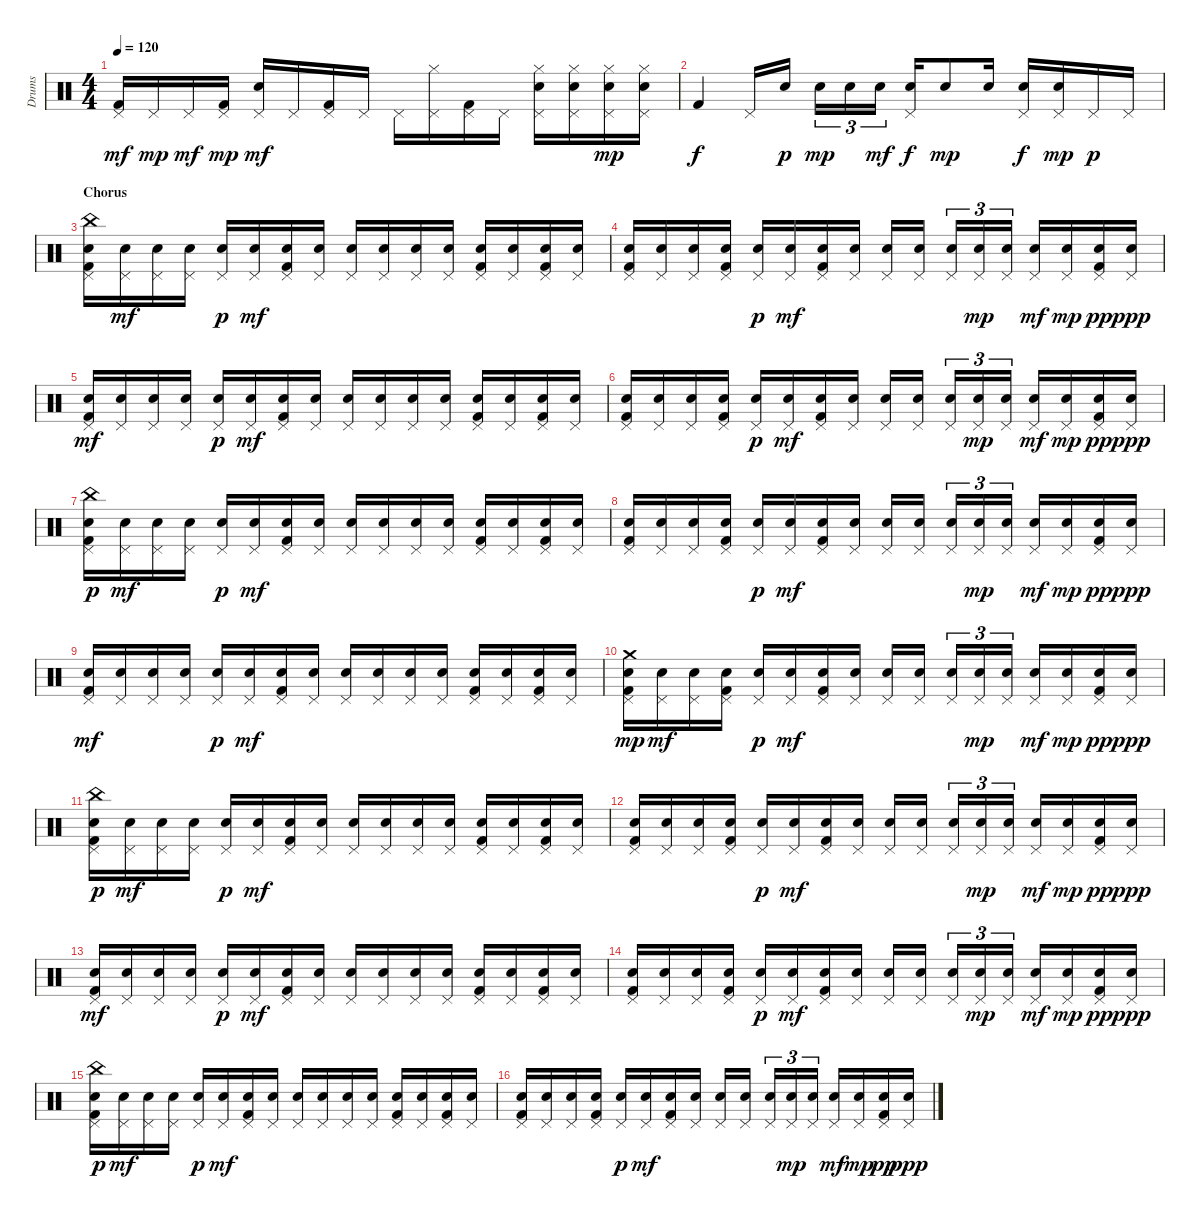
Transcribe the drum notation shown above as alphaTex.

\track ("Drums" "Drums") {instrument percussion}
\staff {score}
\articulation defaults
\ts (4 4)
\tempo 120
\clef neutral
\ks c
("Pedal Hi-Hat (hit)" "Kick (hit) 2").16{dy mf} "Pedal Hi-Hat (hit)".16{dy mp} "Pedal Hi-Hat (hit)".16{dy mf} ("Pedal Hi-Hat (hit)" "Kick (hit) 2").16{dy mp} ("Pedal Hi-Hat (hit)" "Electric Snare (hit)").16{dy mf} "Pedal Hi-Hat (hit)".16 ("Pedal Hi-Hat (hit)" "Kick (hit) 2").16 "Pedal Hi-Hat (hit)".16 "Pedal Hi-Hat (hit)".16 ("Pedal Hi-Hat (hit)" "Hi-Hat (closed)").16 ("Pedal Hi-Hat (hit)" "Kick (hit) 2").16 "Pedal Hi-Hat (hit)".16 ("Pedal Hi-Hat (hit)" "Electric Snare (hit)" "Hi-Hat (closed)").16 ("Pedal Hi-Hat (hit)" "Electric Snare (hit)" "Hi-Hat (closed)").16 ("Pedal Hi-Hat (hit)" "Electric Snare (hit)" "Hi-Hat (closed)").16{dy mp} ("Pedal Hi-Hat (hit)" "Electric Snare (hit)" "Hi-Hat (closed)").16 |
"Kick (hit) 2".4{dy f} "Pedal Hi-Hat (hit)".16 "Electric Snare (hit)".16{dy p} "Electric Snare (hit)".16{tu (3 2) dy mp} "Electric Snare (hit)".16{tu (3 2)} "Electric Snare (hit)".16{tu (3 2) dy mf} ("Electric Snare (hit)" "Pedal Hi-Hat (hit)").16{dy f} "Electric Snare (hit)".8{dy mp} "Electric Snare (hit)".16 ("Electric Snare (hit)" "Pedal Hi-Hat (hit)").16{dy f} ("Electric Snare (hit)" "Pedal Hi-Hat (hit)").16{dy mp} "Pedal Hi-Hat (hit)".16{dy p} "Pedal Hi-Hat (hit)".16 |
\section ("" "Chorus ")
("Electric Snare (hit)" "Pedal Hi-Hat (hit)" "Kick (hit) 2" "China (hit)").16 ("Electric Snare (hit)" "Pedal Hi-Hat (hit)").16{dy mf} ("Electric Snare (hit)" "Pedal Hi-Hat (hit)").16 ("Electric Snare (hit)" "Pedal Hi-Hat (hit)").16 ("Pedal Hi-Hat (hit)" "Electric Snare (hit)").16{dy p} ("Electric Snare (hit)" "Pedal Hi-Hat (hit)").16{dy mf} ("Electric Snare (hit)" "Pedal Hi-Hat (hit)" "Kick (hit) 2").16 ("Electric Snare (hit)" "Pedal Hi-Hat (hit)").16 ("Electric Snare (hit)" "Pedal Hi-Hat (hit)").16 ("Electric Snare (hit)" "Pedal Hi-Hat (hit)").16 ("Electric Snare (hit)" "Pedal Hi-Hat (hit)").16 ("Electric Snare (hit)" "Pedal Hi-Hat (hit)").16 ("Electric Snare (hit)" "Pedal Hi-Hat (hit)" "Kick (hit) 2").16 ("Electric Snare (hit)" "Pedal Hi-Hat (hit)").16 ("Electric Snare (hit)" "Pedal Hi-Hat (hit)" "Kick (hit) 2").16 ("Electric Snare (hit)" "Pedal Hi-Hat (hit)").16 |
("Electric Snare (hit)" "Pedal Hi-Hat (hit)" "Kick (hit) 2").16 ("Electric Snare (hit)" "Pedal Hi-Hat (hit)").16 ("Electric Snare (hit)" "Pedal Hi-Hat (hit)").16 ("Electric Snare (hit)" "Pedal Hi-Hat (hit)" "Kick (hit) 2").16 ("Pedal Hi-Hat (hit)" "Electric Snare (hit)").16{dy p} ("Electric Snare (hit)" "Pedal Hi-Hat (hit)").16{dy mf} ("Electric Snare (hit)" "Pedal Hi-Hat (hit)" "Kick (hit) 2").16 ("Electric Snare (hit)" "Pedal Hi-Hat (hit)").16 ("Electric Snare (hit)" "Pedal Hi-Hat (hit)").16 ("Electric Snare (hit)" "Pedal Hi-Hat (hit)").16 ("Electric Snare (hit)" "Pedal Hi-Hat (hit)").16{tu (3 2)} ("Electric Snare (hit)" "Pedal Hi-Hat (hit)").16{tu (3 2) dy mp} ("Electric Snare (hit)" "Pedal Hi-Hat (hit)").16{tu (3 2)} ("Electric Snare (hit)" "Pedal Hi-Hat (hit)").16{dy mf} ("Electric Snare (hit)" "Pedal Hi-Hat (hit)").16{dy mp} ("Electric Snare (hit)" "Pedal Hi-Hat (hit)" "Kick (hit) 2").16{dy pp} ("Electric Snare (hit)" "Pedal Hi-Hat (hit)").16{dy ppp} |
("Electric Snare (hit)" "Pedal Hi-Hat (hit)" "Kick (hit) 2").16{dy mf} ("Electric Snare (hit)" "Pedal Hi-Hat (hit)").16 ("Electric Snare (hit)" "Pedal Hi-Hat (hit)").16 ("Electric Snare (hit)" "Pedal Hi-Hat (hit)").16 ("Pedal Hi-Hat (hit)" "Electric Snare (hit)").16{dy p} ("Electric Snare (hit)" "Pedal Hi-Hat (hit)").16{dy mf} ("Electric Snare (hit)" "Pedal Hi-Hat (hit)" "Kick (hit) 2").16 ("Electric Snare (hit)" "Pedal Hi-Hat (hit)").16 ("Electric Snare (hit)" "Pedal Hi-Hat (hit)").16 ("Electric Snare (hit)" "Pedal Hi-Hat (hit)").16 ("Electric Snare (hit)" "Pedal Hi-Hat (hit)").16 ("Electric Snare (hit)" "Pedal Hi-Hat (hit)").16 ("Electric Snare (hit)" "Pedal Hi-Hat (hit)" "Kick (hit) 2").16 ("Electric Snare (hit)" "Pedal Hi-Hat (hit)").16 ("Electric Snare (hit)" "Pedal Hi-Hat (hit)" "Kick (hit) 2").16 ("Electric Snare (hit)" "Pedal Hi-Hat (hit)").16 |
("Electric Snare (hit)" "Pedal Hi-Hat (hit)" "Kick (hit) 2").16 ("Electric Snare (hit)" "Pedal Hi-Hat (hit)").16 ("Electric Snare (hit)" "Pedal Hi-Hat (hit)").16 ("Electric Snare (hit)" "Pedal Hi-Hat (hit)" "Kick (hit) 2").16 ("Pedal Hi-Hat (hit)" "Electric Snare (hit)").16{dy p} ("Electric Snare (hit)" "Pedal Hi-Hat (hit)").16{dy mf} ("Electric Snare (hit)" "Pedal Hi-Hat (hit)" "Kick (hit) 2").16 ("Electric Snare (hit)" "Pedal Hi-Hat (hit)").16 ("Electric Snare (hit)" "Pedal Hi-Hat (hit)").16 ("Electric Snare (hit)" "Pedal Hi-Hat (hit)").16 ("Electric Snare (hit)" "Pedal Hi-Hat (hit)").16{tu (3 2)} ("Electric Snare (hit)" "Pedal Hi-Hat (hit)").16{tu (3 2) dy mp} ("Electric Snare (hit)" "Pedal Hi-Hat (hit)").16{tu (3 2)} ("Electric Snare (hit)" "Pedal Hi-Hat (hit)").16{dy mf} ("Electric Snare (hit)" "Pedal Hi-Hat (hit)").16{dy mp} ("Electric Snare (hit)" "Pedal Hi-Hat (hit)" "Kick (hit) 2").16{dy pp} ("Electric Snare (hit)" "Pedal Hi-Hat (hit)").16{dy ppp} |
("Electric Snare (hit)" "Pedal Hi-Hat (hit)" "Kick (hit) 2" "China (hit)").16{dy p} ("Electric Snare (hit)" "Pedal Hi-Hat (hit)").16{dy mf} ("Electric Snare (hit)" "Pedal Hi-Hat (hit)").16 ("Electric Snare (hit)" "Pedal Hi-Hat (hit)").16 ("Pedal Hi-Hat (hit)" "Electric Snare (hit)").16{dy p} ("Electric Snare (hit)" "Pedal Hi-Hat (hit)").16{dy mf} ("Electric Snare (hit)" "Pedal Hi-Hat (hit)" "Kick (hit) 2").16 ("Electric Snare (hit)" "Pedal Hi-Hat (hit)").16 ("Electric Snare (hit)" "Pedal Hi-Hat (hit)").16 ("Electric Snare (hit)" "Pedal Hi-Hat (hit)").16 ("Electric Snare (hit)" "Pedal Hi-Hat (hit)").16 ("Electric Snare (hit)" "Pedal Hi-Hat (hit)").16 ("Electric Snare (hit)" "Pedal Hi-Hat (hit)" "Kick (hit) 2").16 ("Electric Snare (hit)" "Pedal Hi-Hat (hit)").16 ("Electric Snare (hit)" "Pedal Hi-Hat (hit)" "Kick (hit) 2").16 ("Electric Snare (hit)" "Pedal Hi-Hat (hit)").16 |
("Electric Snare (hit)" "Pedal Hi-Hat (hit)" "Kick (hit) 2").16 ("Electric Snare (hit)" "Pedal Hi-Hat (hit)").16 ("Electric Snare (hit)" "Pedal Hi-Hat (hit)").16 ("Electric Snare (hit)" "Pedal Hi-Hat (hit)" "Kick (hit) 2").16 ("Pedal Hi-Hat (hit)" "Electric Snare (hit)").16{dy p} ("Electric Snare (hit)" "Pedal Hi-Hat (hit)").16{dy mf} ("Electric Snare (hit)" "Pedal Hi-Hat (hit)" "Kick (hit) 2").16 ("Electric Snare (hit)" "Pedal Hi-Hat (hit)").16 ("Electric Snare (hit)" "Pedal Hi-Hat (hit)").16 ("Electric Snare (hit)" "Pedal Hi-Hat (hit)").16 ("Electric Snare (hit)" "Pedal Hi-Hat (hit)").16{tu (3 2)} ("Electric Snare (hit)" "Pedal Hi-Hat (hit)").16{tu (3 2) dy mp} ("Electric Snare (hit)" "Pedal Hi-Hat (hit)").16{tu (3 2)} ("Electric Snare (hit)" "Pedal Hi-Hat (hit)").16{dy mf} ("Electric Snare (hit)" "Pedal Hi-Hat (hit)").16{dy mp} ("Electric Snare (hit)" "Pedal Hi-Hat (hit)" "Kick (hit) 2").16{dy pp} ("Electric Snare (hit)" "Pedal Hi-Hat (hit)").16{dy ppp} |
("Electric Snare (hit)" "Pedal Hi-Hat (hit)" "Kick (hit) 2").16{dy mf} ("Electric Snare (hit)" "Pedal Hi-Hat (hit)").16 ("Electric Snare (hit)" "Pedal Hi-Hat (hit)").16 ("Electric Snare (hit)" "Pedal Hi-Hat (hit)").16 ("Pedal Hi-Hat (hit)" "Electric Snare (hit)").16{dy p} ("Electric Snare (hit)" "Pedal Hi-Hat (hit)").16{dy mf} ("Electric Snare (hit)" "Pedal Hi-Hat (hit)" "Kick (hit) 2").16 ("Electric Snare (hit)" "Pedal Hi-Hat (hit)").16 ("Electric Snare (hit)" "Pedal Hi-Hat (hit)").16 ("Electric Snare (hit)" "Pedal Hi-Hat (hit)").16 ("Electric Snare (hit)" "Pedal Hi-Hat (hit)").16 ("Electric Snare (hit)" "Pedal Hi-Hat (hit)").16 ("Electric Snare (hit)" "Pedal Hi-Hat (hit)" "Kick (hit) 2").16 ("Electric Snare (hit)" "Pedal Hi-Hat (hit)").16 ("Electric Snare (hit)" "Pedal Hi-Hat (hit)" "Kick (hit) 2").16 ("Electric Snare (hit)" "Pedal Hi-Hat (hit)").16 |
("Electric Snare (hit)" "Pedal Hi-Hat (hit)" "Kick (hit) 2" "Crash medium (hit)").16{dy mp} ("Electric Snare (hit)" "Pedal Hi-Hat (hit)").16{dy mf} ("Electric Snare (hit)" "Pedal Hi-Hat (hit)").16 ("Electric Snare (hit)" "Pedal Hi-Hat (hit)" "Kick (hit) 2").16 ("Pedal Hi-Hat (hit)" "Electric Snare (hit)").16{dy p} ("Electric Snare (hit)" "Pedal Hi-Hat (hit)").16{dy mf} ("Electric Snare (hit)" "Pedal Hi-Hat (hit)" "Kick (hit) 2").16 ("Electric Snare (hit)" "Pedal Hi-Hat (hit)").16 ("Electric Snare (hit)" "Pedal Hi-Hat (hit)").16 ("Electric Snare (hit)" "Pedal Hi-Hat (hit)").16 ("Electric Snare (hit)" "Pedal Hi-Hat (hit)").16{tu (3 2)} ("Electric Snare (hit)" "Pedal Hi-Hat (hit)").16{tu (3 2) dy mp} ("Electric Snare (hit)" "Pedal Hi-Hat (hit)").16{tu (3 2)} ("Electric Snare (hit)" "Pedal Hi-Hat (hit)").16{dy mf} ("Electric Snare (hit)" "Pedal Hi-Hat (hit)").16{dy mp} ("Electric Snare (hit)" "Pedal Hi-Hat (hit)" "Kick (hit) 2").16{dy pp} ("Electric Snare (hit)" "Pedal Hi-Hat (hit)").16{dy ppp} |
("Electric Snare (hit)" "Pedal Hi-Hat (hit)" "Kick (hit) 2" "China (hit)").16{dy p} ("Electric Snare (hit)" "Pedal Hi-Hat (hit)").16{dy mf} ("Electric Snare (hit)" "Pedal Hi-Hat (hit)").16 ("Electric Snare (hit)" "Pedal Hi-Hat (hit)").16 ("Pedal Hi-Hat (hit)" "Electric Snare (hit)").16{dy p} ("Electric Snare (hit)" "Pedal Hi-Hat (hit)").16{dy mf} ("Electric Snare (hit)" "Pedal Hi-Hat (hit)" "Kick (hit) 2").16 ("Electric Snare (hit)" "Pedal Hi-Hat (hit)").16 ("Electric Snare (hit)" "Pedal Hi-Hat (hit)").16 ("Electric Snare (hit)" "Pedal Hi-Hat (hit)").16 ("Electric Snare (hit)" "Pedal Hi-Hat (hit)").16 ("Electric Snare (hit)" "Pedal Hi-Hat (hit)").16 ("Electric Snare (hit)" "Pedal Hi-Hat (hit)" "Kick (hit) 2").16 ("Electric Snare (hit)" "Pedal Hi-Hat (hit)").16 ("Electric Snare (hit)" "Pedal Hi-Hat (hit)" "Kick (hit) 2").16 ("Electric Snare (hit)" "Pedal Hi-Hat (hit)").16 |
("Electric Snare (hit)" "Pedal Hi-Hat (hit)" "Kick (hit) 2").16 ("Electric Snare (hit)" "Pedal Hi-Hat (hit)").16 ("Electric Snare (hit)" "Pedal Hi-Hat (hit)").16 ("Electric Snare (hit)" "Pedal Hi-Hat (hit)" "Kick (hit) 2").16 ("Pedal Hi-Hat (hit)" "Electric Snare (hit)").16{dy p} ("Electric Snare (hit)" "Pedal Hi-Hat (hit)").16{dy mf} ("Electric Snare (hit)" "Pedal Hi-Hat (hit)" "Kick (hit) 2").16 ("Electric Snare (hit)" "Pedal Hi-Hat (hit)").16 ("Electric Snare (hit)" "Pedal Hi-Hat (hit)").16 ("Electric Snare (hit)" "Pedal Hi-Hat (hit)").16 ("Electric Snare (hit)" "Pedal Hi-Hat (hit)").16{tu (3 2)} ("Electric Snare (hit)" "Pedal Hi-Hat (hit)").16{tu (3 2) dy mp} ("Electric Snare (hit)" "Pedal Hi-Hat (hit)").16{tu (3 2)} ("Electric Snare (hit)" "Pedal Hi-Hat (hit)").16{dy mf} ("Electric Snare (hit)" "Pedal Hi-Hat (hit)").16{dy mp} ("Electric Snare (hit)" "Pedal Hi-Hat (hit)" "Kick (hit) 2").16{dy pp} ("Electric Snare (hit)" "Pedal Hi-Hat (hit)").16{dy ppp} |
("Electric Snare (hit)" "Pedal Hi-Hat (hit)" "Kick (hit) 2").16{dy mf} ("Electric Snare (hit)" "Pedal Hi-Hat (hit)").16 ("Electric Snare (hit)" "Pedal Hi-Hat (hit)").16 ("Electric Snare (hit)" "Pedal Hi-Hat (hit)").16 ("Pedal Hi-Hat (hit)" "Electric Snare (hit)").16{dy p} ("Electric Snare (hit)" "Pedal Hi-Hat (hit)").16{dy mf} ("Electric Snare (hit)" "Pedal Hi-Hat (hit)" "Kick (hit) 2").16 ("Electric Snare (hit)" "Pedal Hi-Hat (hit)").16 ("Electric Snare (hit)" "Pedal Hi-Hat (hit)").16 ("Electric Snare (hit)" "Pedal Hi-Hat (hit)").16 ("Electric Snare (hit)" "Pedal Hi-Hat (hit)").16 ("Electric Snare (hit)" "Pedal Hi-Hat (hit)").16 ("Electric Snare (hit)" "Pedal Hi-Hat (hit)" "Kick (hit) 2").16 ("Electric Snare (hit)" "Pedal Hi-Hat (hit)").16 ("Electric Snare (hit)" "Pedal Hi-Hat (hit)" "Kick (hit) 2").16 ("Electric Snare (hit)" "Pedal Hi-Hat (hit)").16 |
("Electric Snare (hit)" "Pedal Hi-Hat (hit)" "Kick (hit) 2").16 ("Electric Snare (hit)" "Pedal Hi-Hat (hit)").16 ("Electric Snare (hit)" "Pedal Hi-Hat (hit)").16 ("Electric Snare (hit)" "Pedal Hi-Hat (hit)" "Kick (hit) 2").16 ("Pedal Hi-Hat (hit)" "Electric Snare (hit)").16{dy p} ("Electric Snare (hit)" "Pedal Hi-Hat (hit)").16{dy mf} ("Electric Snare (hit)" "Pedal Hi-Hat (hit)" "Kick (hit) 2").16 ("Electric Snare (hit)" "Pedal Hi-Hat (hit)").16 ("Electric Snare (hit)" "Pedal Hi-Hat (hit)").16 ("Electric Snare (hit)" "Pedal Hi-Hat (hit)").16 ("Electric Snare (hit)" "Pedal Hi-Hat (hit)").16{tu (3 2)} ("Electric Snare (hit)" "Pedal Hi-Hat (hit)").16{tu (3 2) dy mp} ("Electric Snare (hit)" "Pedal Hi-Hat (hit)").16{tu (3 2)} ("Electric Snare (hit)" "Pedal Hi-Hat (hit)").16{dy mf} ("Electric Snare (hit)" "Pedal Hi-Hat (hit)").16{dy mp} ("Electric Snare (hit)" "Pedal Hi-Hat (hit)" "Kick (hit) 2").16{dy pp} ("Electric Snare (hit)" "Pedal Hi-Hat (hit)").16{dy ppp} |
("Electric Snare (hit)" "Pedal Hi-Hat (hit)" "Kick (hit) 2" "China (hit)").16{dy p} ("Electric Snare (hit)" "Pedal Hi-Hat (hit)").16{dy mf} ("Electric Snare (hit)" "Pedal Hi-Hat (hit)").16 ("Electric Snare (hit)" "Pedal Hi-Hat (hit)").16 ("Pedal Hi-Hat (hit)" "Electric Snare (hit)").16{dy p} ("Electric Snare (hit)" "Pedal Hi-Hat (hit)").16{dy mf} ("Electric Snare (hit)" "Pedal Hi-Hat (hit)" "Kick (hit) 2").16 ("Electric Snare (hit)" "Pedal Hi-Hat (hit)").16 ("Electric Snare (hit)" "Pedal Hi-Hat (hit)").16 ("Electric Snare (hit)" "Pedal Hi-Hat (hit)").16 ("Electric Snare (hit)" "Pedal Hi-Hat (hit)").16 ("Electric Snare (hit)" "Pedal Hi-Hat (hit)").16 ("Electric Snare (hit)" "Pedal Hi-Hat (hit)" "Kick (hit) 2").16 ("Electric Snare (hit)" "Pedal Hi-Hat (hit)").16 ("Electric Snare (hit)" "Pedal Hi-Hat (hit)" "Kick (hit) 2").16 ("Electric Snare (hit)" "Pedal Hi-Hat (hit)").16 |
("Electric Snare (hit)" "Pedal Hi-Hat (hit)" "Kick (hit) 2").16 ("Electric Snare (hit)" "Pedal Hi-Hat (hit)").16 ("Electric Snare (hit)" "Pedal Hi-Hat (hit)").16 ("Electric Snare (hit)" "Pedal Hi-Hat (hit)" "Kick (hit) 2").16 ("Pedal Hi-Hat (hit)" "Electric Snare (hit)").16{dy p} ("Electric Snare (hit)" "Pedal Hi-Hat (hit)").16{dy mf} ("Electric Snare (hit)" "Pedal Hi-Hat (hit)" "Kick (hit) 2").16 ("Electric Snare (hit)" "Pedal Hi-Hat (hit)").16 ("Electric Snare (hit)" "Pedal Hi-Hat (hit)").16 ("Electric Snare (hit)" "Pedal Hi-Hat (hit)").16 ("Electric Snare (hit)" "Pedal Hi-Hat (hit)").16{tu (3 2)} ("Electric Snare (hit)" "Pedal Hi-Hat (hit)").16{tu (3 2) dy mp} ("Electric Snare (hit)" "Pedal Hi-Hat (hit)").16{tu (3 2)} ("Electric Snare (hit)" "Pedal Hi-Hat (hit)").16{dy mf} ("Electric Snare (hit)" "Pedal Hi-Hat (hit)").16{dy mp} ("Electric Snare (hit)" "Pedal Hi-Hat (hit)" "Kick (hit) 2").16{dy pp} ("Electric Snare (hit)" "Pedal Hi-Hat (hit)").16{dy ppp}
